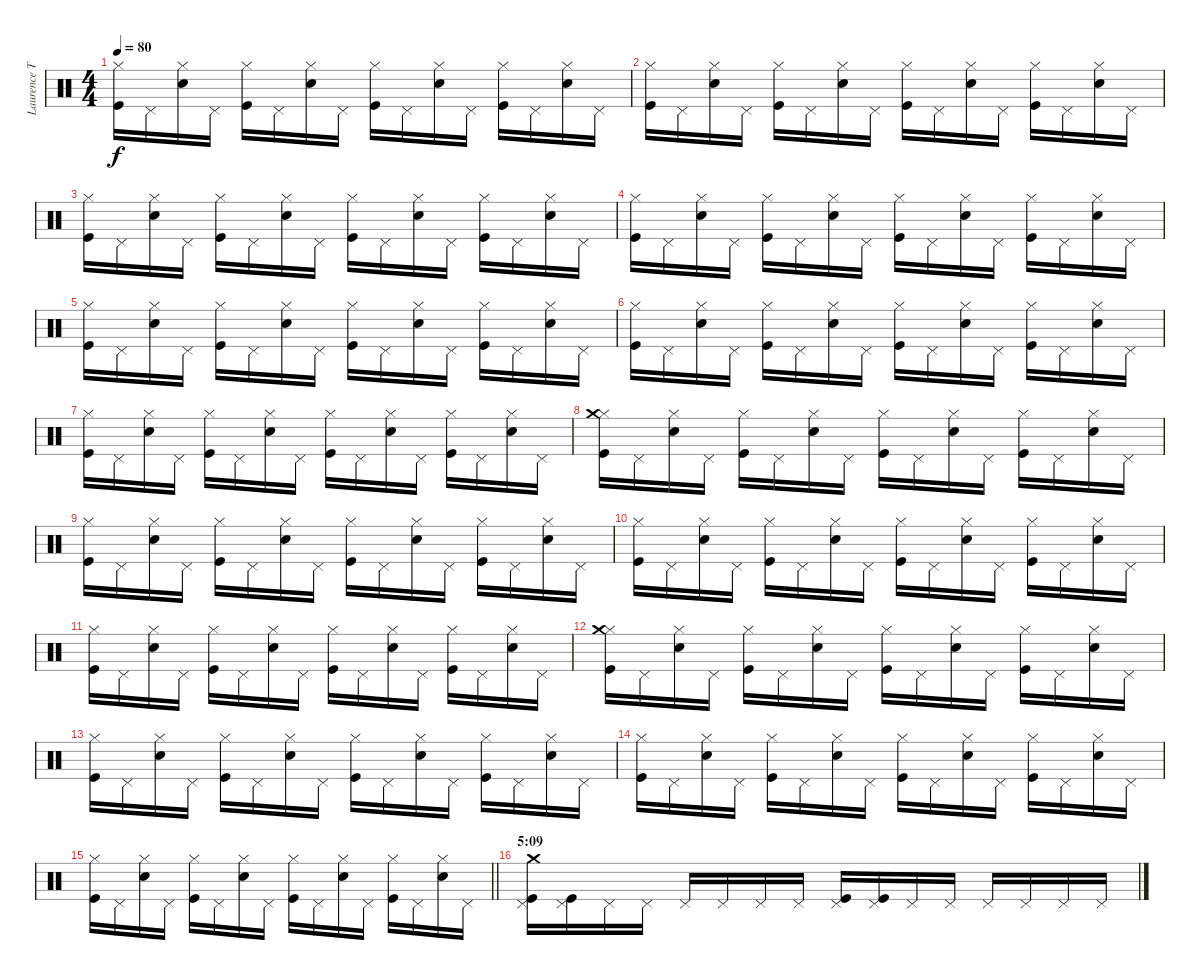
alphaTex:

\track ("Laurence Tolhurst (drums)" "Laurence T") {instrument percussion}
\staff {score}
\articulation defaults
\ts (4 4)
\tempo 80
\clef neutral
\ks c
("Kick (hit)" "Hi-Hat (closed)").16{dy f} "Pedal Hi-Hat (hit)".16 ("Snare (hit) 2" "Hi-Hat (closed)").16 "Pedal Hi-Hat (hit)".16 ("Kick (hit)" "Hi-Hat (closed)").16 "Pedal Hi-Hat (hit)".16 ("Snare (hit) 2" "Hi-Hat (closed)").16 "Pedal Hi-Hat (hit)".16 ("Kick (hit)" "Hi-Hat (closed)").16 "Pedal Hi-Hat (hit)".16 ("Snare (hit) 2" "Hi-Hat (closed)").16 "Pedal Hi-Hat (hit)".16 ("Kick (hit)" "Hi-Hat (closed)").16 "Pedal Hi-Hat (hit)".16 ("Snare (hit) 2" "Hi-Hat (closed)").16 "Pedal Hi-Hat (hit)".16 |
("Kick (hit)" "Hi-Hat (closed)").16 "Pedal Hi-Hat (hit)".16 ("Snare (hit) 2" "Hi-Hat (closed)").16 "Pedal Hi-Hat (hit)".16 ("Kick (hit)" "Hi-Hat (closed)").16 "Pedal Hi-Hat (hit)".16 ("Snare (hit) 2" "Hi-Hat (closed)").16 "Pedal Hi-Hat (hit)".16 ("Kick (hit)" "Hi-Hat (closed)").16 "Pedal Hi-Hat (hit)".16 ("Snare (hit) 2" "Hi-Hat (closed)").16 "Pedal Hi-Hat (hit)".16 ("Kick (hit)" "Hi-Hat (closed)").16 "Pedal Hi-Hat (hit)".16 ("Snare (hit) 2" "Hi-Hat (closed)").16 "Pedal Hi-Hat (hit)".16 |
("Kick (hit)" "Hi-Hat (closed)").16 "Pedal Hi-Hat (hit)".16 ("Snare (hit) 2" "Hi-Hat (closed)").16 "Pedal Hi-Hat (hit)".16 ("Kick (hit)" "Hi-Hat (closed)").16 "Pedal Hi-Hat (hit)".16 ("Snare (hit) 2" "Hi-Hat (closed)").16 "Pedal Hi-Hat (hit)".16 ("Kick (hit)" "Hi-Hat (closed)").16 "Pedal Hi-Hat (hit)".16 ("Snare (hit) 2" "Hi-Hat (closed)").16 "Pedal Hi-Hat (hit)".16 ("Kick (hit)" "Hi-Hat (closed)").16 "Pedal Hi-Hat (hit)".16 ("Snare (hit) 2" "Hi-Hat (closed)").16 "Pedal Hi-Hat (hit)".16 |
("Kick (hit)" "Hi-Hat (closed)").16 "Pedal Hi-Hat (hit)".16 ("Snare (hit) 2" "Hi-Hat (closed)").16 "Pedal Hi-Hat (hit)".16 ("Kick (hit)" "Hi-Hat (closed)").16 "Pedal Hi-Hat (hit)".16 ("Snare (hit) 2" "Hi-Hat (closed)").16 "Pedal Hi-Hat (hit)".16 ("Kick (hit)" "Hi-Hat (closed)").16 "Pedal Hi-Hat (hit)".16 ("Snare (hit) 2" "Hi-Hat (closed)").16 "Pedal Hi-Hat (hit)".16 ("Kick (hit)" "Hi-Hat (closed)").16 "Pedal Hi-Hat (hit)".16 ("Snare (hit) 2" "Hi-Hat (closed)").16 "Pedal Hi-Hat (hit)".16 |
("Kick (hit)" "Hi-Hat (closed)").16 "Pedal Hi-Hat (hit)".16 ("Snare (hit) 2" "Hi-Hat (closed)").16 "Pedal Hi-Hat (hit)".16 ("Kick (hit)" "Hi-Hat (closed)").16 "Pedal Hi-Hat (hit)".16 ("Snare (hit) 2" "Hi-Hat (closed)").16 "Pedal Hi-Hat (hit)".16 ("Kick (hit)" "Hi-Hat (closed)").16 "Pedal Hi-Hat (hit)".16 ("Snare (hit) 2" "Hi-Hat (closed)").16 "Pedal Hi-Hat (hit)".16 ("Kick (hit)" "Hi-Hat (closed)").16 "Pedal Hi-Hat (hit)".16 ("Snare (hit) 2" "Hi-Hat (closed)").16 "Pedal Hi-Hat (hit)".16 |
("Kick (hit)" "Hi-Hat (closed)").16 "Pedal Hi-Hat (hit)".16 ("Snare (hit) 2" "Hi-Hat (closed)").16 "Pedal Hi-Hat (hit)".16 ("Kick (hit)" "Hi-Hat (closed)").16 "Pedal Hi-Hat (hit)".16 ("Snare (hit) 2" "Hi-Hat (closed)").16 "Pedal Hi-Hat (hit)".16 ("Kick (hit)" "Hi-Hat (closed)").16 "Pedal Hi-Hat (hit)".16 ("Snare (hit) 2" "Hi-Hat (closed)").16 "Pedal Hi-Hat (hit)".16 ("Kick (hit)" "Hi-Hat (closed)").16 "Pedal Hi-Hat (hit)".16 ("Snare (hit) 2" "Hi-Hat (closed)").16 "Pedal Hi-Hat (hit)".16 |
("Kick (hit)" "Hi-Hat (closed)").16 "Pedal Hi-Hat (hit)".16 ("Snare (hit) 2" "Hi-Hat (closed)").16 "Pedal Hi-Hat (hit)".16 ("Kick (hit)" "Hi-Hat (closed)").16 "Pedal Hi-Hat (hit)".16 ("Snare (hit) 2" "Hi-Hat (closed)").16 "Pedal Hi-Hat (hit)".16 ("Kick (hit)" "Hi-Hat (closed)").16 "Pedal Hi-Hat (hit)".16 ("Snare (hit) 2" "Hi-Hat (closed)").16 "Pedal Hi-Hat (hit)".16 ("Kick (hit)" "Hi-Hat (closed)").16 "Pedal Hi-Hat (hit)".16 ("Snare (hit) 2" "Hi-Hat (closed)").16 "Pedal Hi-Hat (hit)".16 |
("Kick (hit)" "Hi-Hat (closed)" "Crash medium (hit)").16 "Pedal Hi-Hat (hit)".16 ("Snare (hit) 2" "Hi-Hat (closed)").16 "Pedal Hi-Hat (hit)".16 ("Kick (hit)" "Hi-Hat (closed)").16 "Pedal Hi-Hat (hit)".16 ("Snare (hit) 2" "Hi-Hat (closed)").16 "Pedal Hi-Hat (hit)".16 ("Kick (hit)" "Hi-Hat (closed)").16 "Pedal Hi-Hat (hit)".16 ("Snare (hit) 2" "Hi-Hat (closed)").16 "Pedal Hi-Hat (hit)".16 ("Kick (hit)" "Hi-Hat (closed)").16 "Pedal Hi-Hat (hit)".16 ("Snare (hit) 2" "Hi-Hat (closed)").16 "Pedal Hi-Hat (hit)".16 |
("Kick (hit)" "Hi-Hat (closed)").16 "Pedal Hi-Hat (hit)".16 ("Snare (hit) 2" "Hi-Hat (closed)").16 "Pedal Hi-Hat (hit)".16 ("Kick (hit)" "Hi-Hat (closed)").16 "Pedal Hi-Hat (hit)".16 ("Snare (hit) 2" "Hi-Hat (closed)").16 "Pedal Hi-Hat (hit)".16 ("Kick (hit)" "Hi-Hat (closed)").16 "Pedal Hi-Hat (hit)".16 ("Snare (hit) 2" "Hi-Hat (closed)").16 "Pedal Hi-Hat (hit)".16 ("Kick (hit)" "Hi-Hat (closed)").16 "Pedal Hi-Hat (hit)".16 ("Snare (hit) 2" "Hi-Hat (closed)").16 "Pedal Hi-Hat (hit)".16 |
("Kick (hit)" "Hi-Hat (closed)").16 "Pedal Hi-Hat (hit)".16 ("Snare (hit) 2" "Hi-Hat (closed)").16 "Pedal Hi-Hat (hit)".16 ("Kick (hit)" "Hi-Hat (closed)").16 "Pedal Hi-Hat (hit)".16 ("Snare (hit) 2" "Hi-Hat (closed)").16 "Pedal Hi-Hat (hit)".16 ("Kick (hit)" "Hi-Hat (closed)").16 "Pedal Hi-Hat (hit)".16 ("Snare (hit) 2" "Hi-Hat (closed)").16 "Pedal Hi-Hat (hit)".16 ("Kick (hit)" "Hi-Hat (closed)").16 "Pedal Hi-Hat (hit)".16 ("Snare (hit) 2" "Hi-Hat (closed)").16 "Pedal Hi-Hat (hit)".16 |
("Kick (hit)" "Hi-Hat (closed)").16 "Pedal Hi-Hat (hit)".16 ("Snare (hit) 2" "Hi-Hat (closed)").16 "Pedal Hi-Hat (hit)".16 ("Kick (hit)" "Hi-Hat (closed)").16 "Pedal Hi-Hat (hit)".16 ("Snare (hit) 2" "Hi-Hat (closed)").16 "Pedal Hi-Hat (hit)".16 ("Kick (hit)" "Hi-Hat (closed)").16 "Pedal Hi-Hat (hit)".16 ("Snare (hit) 2" "Hi-Hat (closed)").16 "Pedal Hi-Hat (hit)".16 ("Kick (hit)" "Hi-Hat (closed)").16 "Pedal Hi-Hat (hit)".16 ("Snare (hit) 2" "Hi-Hat (closed)").16 "Pedal Hi-Hat (hit)".16 |
("Kick (hit)" "Hi-Hat (closed)" "Crash medium (hit)").16 "Pedal Hi-Hat (hit)".16 ("Snare (hit) 2" "Hi-Hat (closed)").16 "Pedal Hi-Hat (hit)".16 ("Kick (hit)" "Hi-Hat (closed)").16 "Pedal Hi-Hat (hit)".16 ("Snare (hit) 2" "Hi-Hat (closed)").16 "Pedal Hi-Hat (hit)".16 ("Kick (hit)" "Hi-Hat (closed)").16 "Pedal Hi-Hat (hit)".16 ("Snare (hit) 2" "Hi-Hat (closed)").16 "Pedal Hi-Hat (hit)".16 ("Kick (hit)" "Hi-Hat (closed)").16 "Pedal Hi-Hat (hit)".16 ("Snare (hit) 2" "Hi-Hat (closed)").16 "Pedal Hi-Hat (hit)".16 |
("Kick (hit)" "Hi-Hat (closed)").16 "Pedal Hi-Hat (hit)".16 ("Snare (hit) 2" "Hi-Hat (closed)").16 "Pedal Hi-Hat (hit)".16 ("Kick (hit)" "Hi-Hat (closed)").16 "Pedal Hi-Hat (hit)".16 ("Snare (hit) 2" "Hi-Hat (closed)").16 "Pedal Hi-Hat (hit)".16 ("Kick (hit)" "Hi-Hat (closed)").16 "Pedal Hi-Hat (hit)".16 ("Snare (hit) 2" "Hi-Hat (closed)").16 "Pedal Hi-Hat (hit)".16 ("Kick (hit)" "Hi-Hat (closed)").16 "Pedal Hi-Hat (hit)".16 ("Snare (hit) 2" "Hi-Hat (closed)").16 "Pedal Hi-Hat (hit)".16 |
("Kick (hit)" "Hi-Hat (closed)").16 "Pedal Hi-Hat (hit)".16 ("Snare (hit) 2" "Hi-Hat (closed)").16 "Pedal Hi-Hat (hit)".16 ("Kick (hit)" "Hi-Hat (closed)").16 "Pedal Hi-Hat (hit)".16 ("Snare (hit) 2" "Hi-Hat (closed)").16 "Pedal Hi-Hat (hit)".16 ("Kick (hit)" "Hi-Hat (closed)").16 "Pedal Hi-Hat (hit)".16 ("Snare (hit) 2" "Hi-Hat (closed)").16 "Pedal Hi-Hat (hit)".16 ("Kick (hit)" "Hi-Hat (closed)").16 "Pedal Hi-Hat (hit)".16 ("Snare (hit) 2" "Hi-Hat (closed)").16 "Pedal Hi-Hat (hit)".16 |
\barLineRight lightlight
("Kick (hit)" "Hi-Hat (closed)").16 "Pedal Hi-Hat (hit)".16 ("Snare (hit) 2" "Hi-Hat (closed)").16 "Pedal Hi-Hat (hit)".16 ("Kick (hit)" "Hi-Hat (closed)").16 "Pedal Hi-Hat (hit)".16 ("Snare (hit) 2" "Hi-Hat (closed)").16 "Pedal Hi-Hat (hit)".16 ("Kick (hit)" "Hi-Hat (closed)").16 "Pedal Hi-Hat (hit)".16 ("Snare (hit) 2" "Hi-Hat (closed)").16 "Pedal Hi-Hat (hit)".16 ("Kick (hit)" "Hi-Hat (closed)").16 "Pedal Hi-Hat (hit)".16 ("Snare (hit) 2" "Hi-Hat (closed)").16 "Pedal Hi-Hat (hit)".16 |
\section ("" "5:09")
("Pedal Hi-Hat (hit)" "Kick (hit)" "Crash medium (hit)").16 ("Pedal Hi-Hat (hit)" "Kick (hit)").16 "Pedal Hi-Hat (hit)".16 "Pedal Hi-Hat (hit)".16 "Pedal Hi-Hat (hit)".16 "Pedal Hi-Hat (hit)".16 "Pedal Hi-Hat (hit)".16 "Pedal Hi-Hat (hit)".16 ("Pedal Hi-Hat (hit)" "Kick (hit)").16 ("Pedal Hi-Hat (hit)" "Kick (hit)").16 "Pedal Hi-Hat (hit)".16 "Pedal Hi-Hat (hit)".16 "Pedal Hi-Hat (hit)".16 "Pedal Hi-Hat (hit)".16 "Pedal Hi-Hat (hit)".16 "Pedal Hi-Hat (hit)".16
